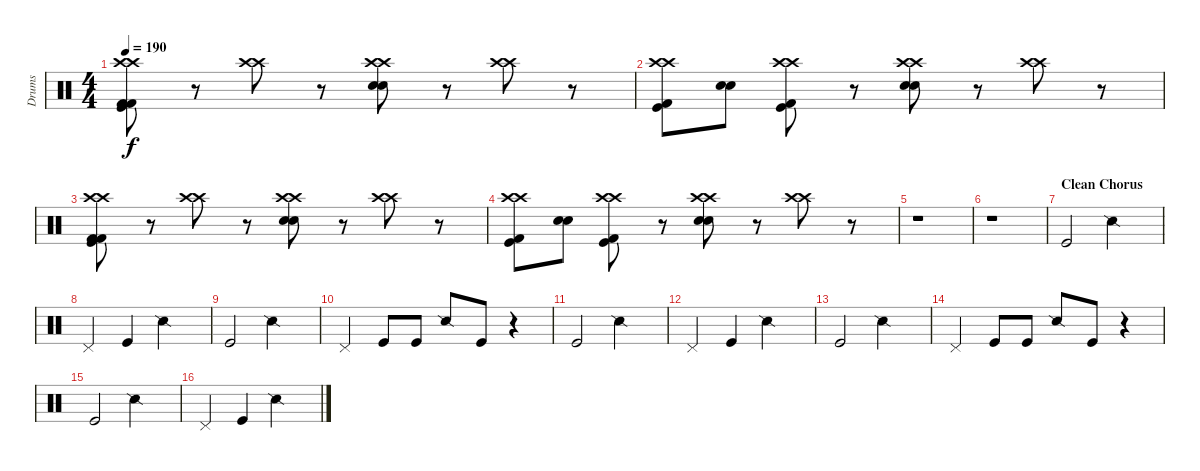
\track ("Drums" "Drums") {instrument percussion}
\staff {score}
\articulation defaults
\ts (4 4)
\tempo 190
\clef neutral
\ks c
("Crash high (hit)" "Crash high (hit)" "Kick (hit) 2" "Kick (hit) 2" "Kick (hit)").8{dy f} r.8 ("Crash high (hit)" "Crash high (hit)").8 r.8 ("Crash high (hit)" "Crash high (hit)" "Electric Snare (hit)" "Electric Snare (hit)").8 r.8 ("Crash high (hit)" "Crash high (hit)").8 r.8 |
("Crash high (hit)" "Crash high (hit)" "Kick (hit) 2" "Kick (hit)").8 ("Electric Snare (hit)" "Electric Snare (hit)").8 ("Crash high (hit)" "Crash high (hit)" "Kick (hit) 2" "Kick (hit)").8 r.8 ("Crash high (hit)" "Crash high (hit)" "Electric Snare (hit)" "Electric Snare (hit)").8 r.8 ("Crash high (hit)" "Crash high (hit)").8 r.8 |
("Crash high (hit)" "Crash high (hit)" "Kick (hit) 2" "Kick (hit) 2" "Kick (hit)").8 r.8 ("Crash high (hit)" "Crash high (hit)").8 r.8 ("Crash high (hit)" "Crash high (hit)" "Electric Snare (hit)" "Electric Snare (hit)").8 r.8 ("Crash high (hit)" "Crash high (hit)").8 r.8 |
("Crash high (hit)" "Crash high (hit)" "Kick (hit) 2" "Kick (hit)").8 ("Electric Snare (hit)" "Electric Snare (hit)").8 ("Crash high (hit)" "Crash high (hit)" "Kick (hit) 2" "Kick (hit)").8 r.8 ("Crash high (hit)" "Crash high (hit)" "Electric Snare (hit)" "Electric Snare (hit)").8 r.8 ("Crash high (hit)" "Crash high (hit)").8 r.8 |
r.1 |
r.1 |
\section ("" "Clean Chorus")
"Kick (hit)".2 "Snare (side stick) 2".2 |
"Pedal Hi-Hat (hit)".4 "Kick (hit)".4 "Snare (side stick) 2".2 |
"Kick (hit)".2 "Snare (side stick) 2".2 |
"Pedal Hi-Hat (hit)".4 "Kick (hit)".8 "Kick (hit)".8 "Snare (side stick) 2".8 "Kick (hit)".8 r.4 |
"Kick (hit)".2 "Snare (side stick) 2".2 |
"Pedal Hi-Hat (hit)".4 "Kick (hit)".4 "Snare (side stick) 2".2 |
"Kick (hit)".2 "Snare (side stick) 2".2 |
"Pedal Hi-Hat (hit)".4 "Kick (hit)".8 "Kick (hit)".8 "Snare (side stick) 2".8 "Kick (hit)".8 r.4 |
"Kick (hit)".2 "Snare (side stick) 2".2 |
"Pedal Hi-Hat (hit)".4 "Kick (hit)".4 "Snare (side stick) 2".2
